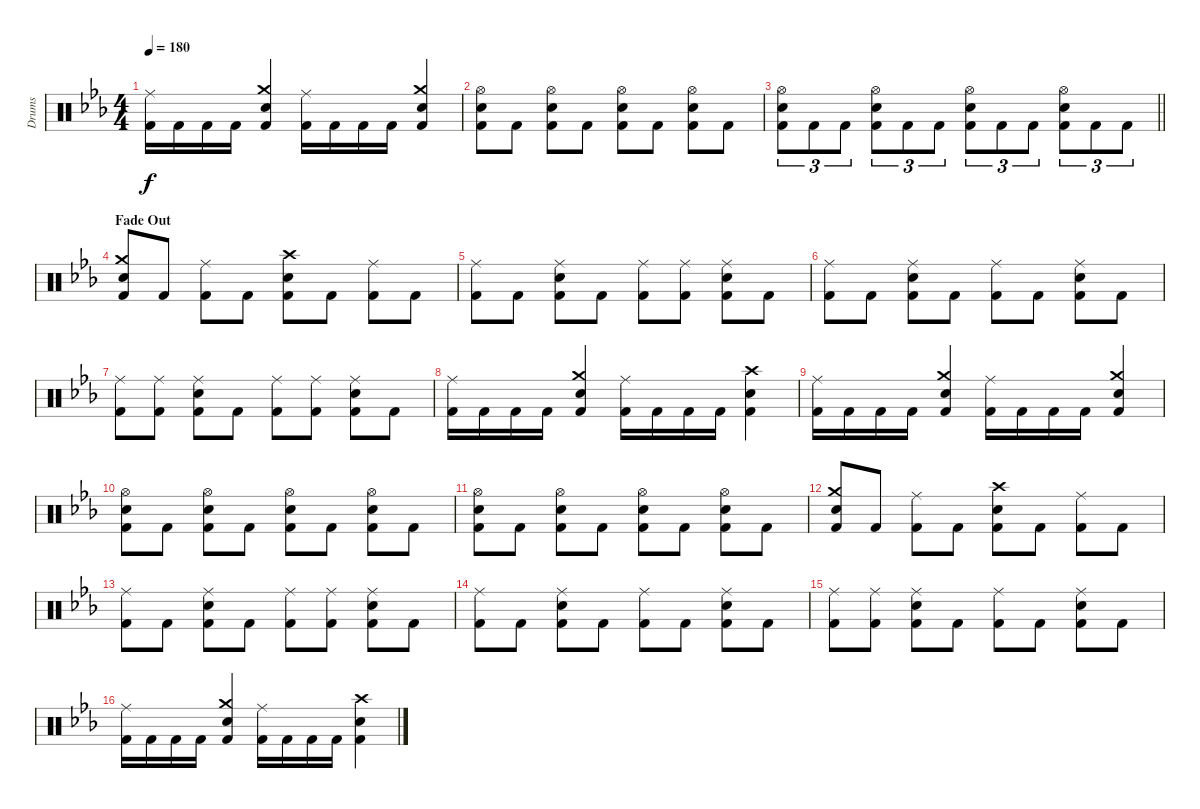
\track ("Drums" "Drums") {instrument percussion}
\staff {score}
\articulation defaults
\ts (4 4)
\tempo 180
\clef neutral
\ks eb
("Ride (middle)" "Kick (hit) 2").16{dy f} "Kick (hit) 2".16 "Kick (hit) 2".16 "Kick (hit) 2".16 ("Crash medium (hit)" "Snare (hit) 2" "Kick (hit) 2").4 ("Ride (middle)" "Kick (hit) 2").16 "Kick (hit) 2".16 "Kick (hit) 2".16 "Kick (hit) 2".16 ("Crash medium (hit)" "Snare (hit) 2" "Kick (hit) 2").4 |
("Hi-Hat (open)" "Snare (hit) 2" "Kick (hit) 2").8 "Kick (hit) 2".8 ("Hi-Hat (open)" "Snare (hit) 2" "Kick (hit) 2").8 "Kick (hit) 2".8 ("Hi-Hat (open)" "Snare (hit) 2" "Kick (hit) 2").8 "Kick (hit) 2".8 ("Hi-Hat (open)" "Snare (hit) 2" "Kick (hit) 2").8 "Kick (hit) 2".8 |
\barLineRight lightlight
("Hi-Hat (open)" "Snare (hit) 2" "Kick (hit) 2").8{tu (3 2)} "Kick (hit) 2".8{tu (3 2)} "Kick (hit) 2".8{tu (3 2)} ("Hi-Hat (open)" "Snare (hit) 2" "Kick (hit) 2").8{tu (3 2)} "Kick (hit) 2".8{tu (3 2)} "Kick (hit) 2".8{tu (3 2)} ("Hi-Hat (open)" "Snare (hit) 2" "Kick (hit) 2").8{tu (3 2)} "Kick (hit) 2".8{tu (3 2)} "Kick (hit) 2".8{tu (3 2)} ("Hi-Hat (open)" "Snare (hit) 2" "Kick (hit) 2").8{tu (3 2)} "Kick (hit) 2".8{tu (3 2)} "Kick (hit) 2".8{tu (3 2)} |
\section ("" "Fade Out")
("Crash medium (hit)" "Snare (hit) 2" "Kick (hit) 2").8{volume 10} "Kick (hit) 2".8 ("Ride (middle)" "Kick (hit) 2").8 "Kick (hit) 2".8 ("Crash high (hit)" "Snare (hit) 2" "Kick (hit) 2").8 "Kick (hit) 2".8 ("Ride (middle)" "Kick (hit) 2").8 "Kick (hit) 2".8 |
("Ride (middle)" "Kick (hit) 2").8 "Kick (hit) 2".8 ("Ride (middle)" "Snare (hit) 2" "Kick (hit) 2").8 "Kick (hit) 2".8 ("Ride (middle)" "Kick (hit) 2").8 ("Ride (middle)" "Kick (hit) 2").8 ("Ride (middle)" "Snare (hit) 2" "Kick (hit) 2").8 "Kick (hit) 2".8 |
("Ride (middle)" "Kick (hit) 2").8 "Kick (hit) 2".8 ("Ride (middle)" "Snare (hit) 2" "Kick (hit) 2").8 "Kick (hit) 2".8 ("Ride (middle)" "Kick (hit) 2").8 "Kick (hit) 2".8 ("Ride (middle)" "Snare (hit) 2" "Kick (hit) 2").8 "Kick (hit) 2".8 |
("Ride (middle)" "Kick (hit) 2").8 ("Ride (middle)" "Kick (hit) 2").8 ("Ride (middle)" "Snare (hit) 2" "Kick (hit) 2").8 "Kick (hit) 2".8 ("Ride (middle)" "Kick (hit) 2").8 ("Ride (middle)" "Kick (hit) 2").8 ("Ride (middle)" "Snare (hit) 2" "Kick (hit) 2").8 "Kick (hit) 2".8 |
("Ride (middle)" "Kick (hit) 2").16{volume 7} "Kick (hit) 2".16 "Kick (hit) 2".16 "Kick (hit) 2".16 ("Crash medium (hit)" "Snare (hit) 2" "Kick (hit) 2").4 ("Ride (middle)" "Kick (hit) 2").16 "Kick (hit) 2".16 "Kick (hit) 2".16 "Kick (hit) 2".16 ("Crash high (hit)" "Snare (hit) 2" "Kick (hit) 2").4 |
("Ride (middle)" "Kick (hit) 2").16 "Kick (hit) 2".16 "Kick (hit) 2".16 "Kick (hit) 2".16 ("Crash medium (hit)" "Snare (hit) 2" "Kick (hit) 2").4 ("Ride (middle)" "Kick (hit) 2").16 "Kick (hit) 2".16 "Kick (hit) 2".16 "Kick (hit) 2".16 ("Crash medium (hit)" "Snare (hit) 2" "Kick (hit) 2").4 |
("Hi-Hat (open)" "Snare (hit) 2" "Kick (hit) 2").8 "Kick (hit) 2".8 ("Hi-Hat (open)" "Snare (hit) 2" "Kick (hit) 2").8 "Kick (hit) 2".8 ("Hi-Hat (open)" "Snare (hit) 2" "Kick (hit) 2").8 "Kick (hit) 2".8 ("Hi-Hat (open)" "Snare (hit) 2" "Kick (hit) 2").8 "Kick (hit) 2".8 |
("Hi-Hat (open)" "Snare (hit) 2" "Kick (hit) 2").8 "Kick (hit) 2".8 ("Hi-Hat (open)" "Snare (hit) 2" "Kick (hit) 2").8 "Kick (hit) 2".8 ("Hi-Hat (open)" "Snare (hit) 2" "Kick (hit) 2").8 "Kick (hit) 2".8 ("Hi-Hat (open)" "Snare (hit) 2" "Kick (hit) 2").8 "Kick (hit) 2".8 |
("Crash medium (hit)" "Snare (hit) 2" "Kick (hit) 2").8{volume 4} "Kick (hit) 2".8 ("Ride (middle)" "Kick (hit) 2").8 "Kick (hit) 2".8 ("Crash high (hit)" "Snare (hit) 2" "Kick (hit) 2").8 "Kick (hit) 2".8 ("Ride (middle)" "Kick (hit) 2").8 "Kick (hit) 2".8 |
("Ride (middle)" "Kick (hit) 2").8 "Kick (hit) 2".8 ("Ride (middle)" "Snare (hit) 2" "Kick (hit) 2").8 "Kick (hit) 2".8 ("Ride (middle)" "Kick (hit) 2").8 ("Ride (middle)" "Kick (hit) 2").8 ("Ride (middle)" "Snare (hit) 2" "Kick (hit) 2").8 "Kick (hit) 2".8 |
("Ride (middle)" "Kick (hit) 2").8 "Kick (hit) 2".8 ("Ride (middle)" "Snare (hit) 2" "Kick (hit) 2").8 "Kick (hit) 2".8 ("Ride (middle)" "Kick (hit) 2").8 "Kick (hit) 2".8 ("Ride (middle)" "Snare (hit) 2" "Kick (hit) 2").8 "Kick (hit) 2".8 |
("Ride (middle)" "Kick (hit) 2").8 ("Ride (middle)" "Kick (hit) 2").8 ("Ride (middle)" "Snare (hit) 2" "Kick (hit) 2").8 "Kick (hit) 2".8 ("Ride (middle)" "Kick (hit) 2").8 "Kick (hit) 2".8 ("Ride (middle)" "Snare (hit) 2" "Kick (hit) 2").8 "Kick (hit) 2".8 |
("Ride (middle)" "Kick (hit) 2").16 "Kick (hit) 2".16 "Kick (hit) 2".16 "Kick (hit) 2".16 ("Crash medium (hit)" "Snare (hit) 2" "Kick (hit) 2").4 ("Ride (middle)" "Kick (hit) 2").16 "Kick (hit) 2".16 "Kick (hit) 2".16 "Kick (hit) 2".16 ("Crash high (hit)" "Snare (hit) 2" "Kick (hit) 2").4
